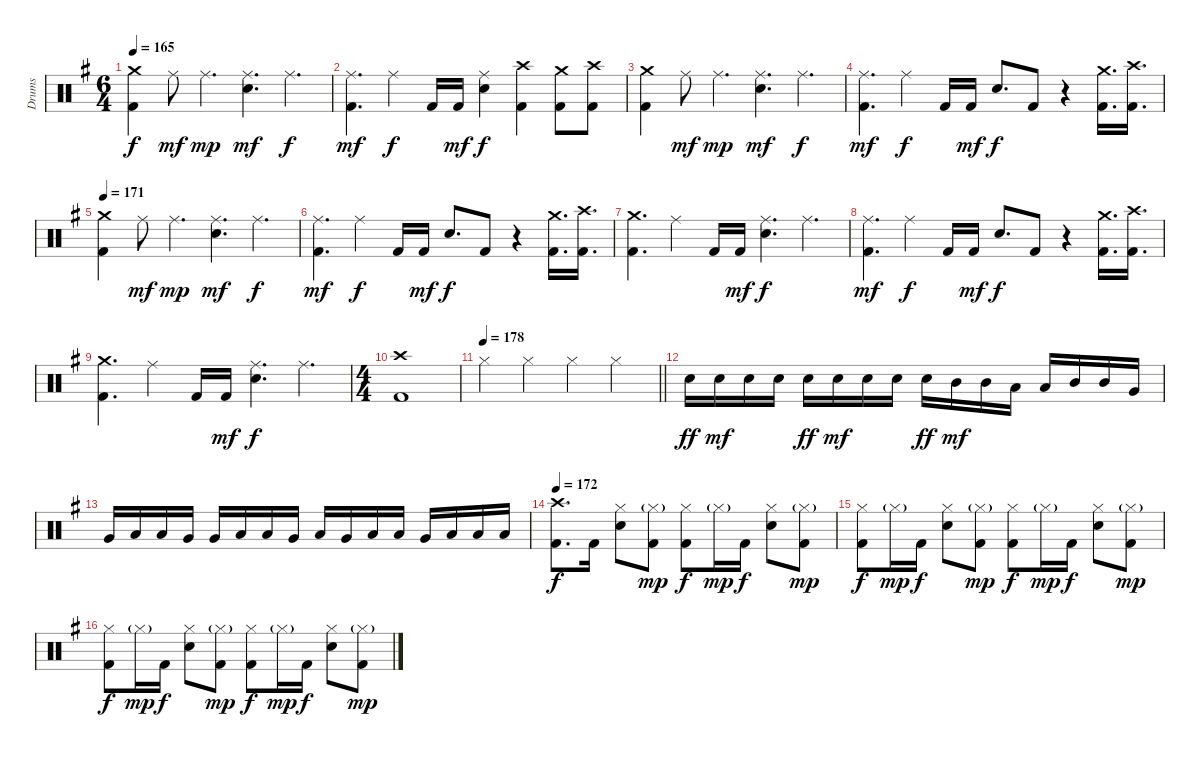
\track ("Drums" "Drums") {instrument percussion}
\staff {score}
\articulation defaults
\ts (6 4)
\tempo 165
\clef neutral
\ks g
("Crash medium (hit)" "Kick (hit) 2").4{dy f} "Ride (middle)".8{dy mf} "Ride (middle)".4{d dy mp} ("Ride (middle)" "Snare (hit) 2").4{d dy mf} "Ride (middle)".4{d dy f} |
("Ride (middle)" "Kick (hit) 2").4{d dy mf} "Ride (middle)".4{dy f} "Kick (hit) 2".16 "Kick (hit) 2".16{dy mf} ("Ride (middle)" "Snare (hit) 2").4{dy f} ("Crash high (hit)" "Kick (hit) 2").4 ("Crash medium (hit)" "Kick (hit) 2").8 ("Crash high (hit)" "Kick (hit) 2").8 |
("Crash medium (hit)" "Kick (hit) 2").4 "Ride (middle)".8{dy mf} "Ride (middle)".4{d dy mp} ("Ride (middle)" "Snare (hit) 2").4{d dy mf} "Ride (middle)".4{d dy f} |
("Ride (middle)" "Kick (hit) 2").4{d dy mf} "Ride (middle)".4{dy f} "Kick (hit) 2".16 "Kick (hit) 2".16{dy mf} "Snare (hit) 2".8{d dy f} "Kick (hit) 2".8 r.4 ("Crash medium (hit)" "Kick (hit) 2").16{d} ("Crash high (hit)" "Kick (hit) 2").16{d} |
\tempo 171
("Crash medium (hit)" "Kick (hit) 2").4 "Ride (middle)".8{dy mf} "Ride (middle)".4{d dy mp} ("Ride (middle)" "Snare (hit) 2").4{d dy mf} "Ride (middle)".4{d dy f} |
("Ride (middle)" "Kick (hit) 2").4{d dy mf} "Ride (middle)".4{dy f} "Kick (hit) 2".16 "Kick (hit) 2".16{dy mf} "Snare (hit) 2".8{d dy f} "Kick (hit) 2".8 r.4 ("Crash medium (hit)" "Kick (hit) 2").16{d} ("Crash high (hit)" "Kick (hit) 2").16{d} |
("Crash medium (hit)" "Kick (hit) 2").4{d} "Ride (middle)".4 "Kick (hit) 2".16 "Kick (hit) 2".16{dy mf} ("Ride (middle)" "Snare (hit) 2").4{d dy f} "Ride (middle)".4{d} |
("Ride (middle)" "Kick (hit) 2").4{d dy mf} "Ride (middle)".4{dy f} "Kick (hit) 2".16 "Kick (hit) 2".16{dy mf} "Snare (hit) 2".8{d dy f} "Kick (hit) 2".8 r.4 ("Crash medium (hit)" "Kick (hit) 2").16{d} ("Crash high (hit)" "Kick (hit) 2").16{d} |
("Crash medium (hit)" "Kick (hit) 2").4{d} "Ride (middle)".4 "Kick (hit) 2".16 "Kick (hit) 2".16{dy mf} ("Ride (middle)" "Snare (hit) 2").4{d dy f} "Ride (middle)".4{d} |
\ts (4 4)
("Crash high (hit)" "Kick (hit) 2").1 |
\tempo 178
\barLineRight lightlight "Hi-Hat (closed)".4 "Hi-Hat (closed)".4 "Hi-Hat (closed)".4 "Hi-Hat (closed)".4
|
"Snare (hit) 2".16{dy ff} "Snare (hit) 2".16{dy mf} "Snare (hit) 2".16 "Snare (hit) 2".16 "Snare (hit) 2".16{dy ff} "Snare (hit) 2".16{dy mf} "Snare (hit) 2".16 "Snare (hit) 2".16 "Snare (hit) 2".16{dy ff} "Mid Tom (hit)".16{dy mf} "Mid Tom (hit)".16 "Low Tom (hit)".16 "Low Tom (hit)".16 "Mid Tom (hit)".16 "Mid Tom (hit)".16 "Very Low Tom (hit)".16 |
"Very Low Tom (hit)".16 "Low Tom (hit)".16 "Low Tom (hit)".16 "Very Low Tom (hit)".16 "Very Low Tom (hit)".16 "Low Tom (hit)".16 "Low Tom (hit)".16 "Very Low Tom (hit)".16 "Low Floor Tom (hit)".16 "Very Low Tom (hit)".16 "Low Floor Tom (hit)".16 "Low Floor Tom (hit)".16 "Very Low Tom (hit)".16 "Low Floor Tom (hit)".16 "Low Floor Tom (hit)".16 "Low Floor Tom (hit)".16 |
\tempo 172
("Crash high (hit)" "Kick (hit) 2").8{d dy f} "Kick (hit) 2".16 ("Hi-Hat (closed)" "Snare (hit) 2").8 ("Hi-Hat (closed)"{g} "Kick (hit) 2").8{dy mp} ("Hi-Hat (closed)" "Kick (hit) 2").8{dy f} "Hi-Hat (closed)"{g}.16{dy mp} "Kick (hit) 2".16{dy f} ("Hi-Hat (closed)" "Snare (hit) 2").8 ("Hi-Hat (closed)"{g} "Kick (hit) 2").8{dy mp} |
("Hi-Hat (closed)" "Kick (hit) 2").8{dy f} "Hi-Hat (closed)"{g}.16{dy mp} "Kick (hit) 2".16{dy f} ("Hi-Hat (closed)" "Snare (hit) 2").8 ("Hi-Hat (closed)"{g} "Kick (hit) 2").8{dy mp} ("Hi-Hat (closed)" "Kick (hit) 2").8{dy f} "Hi-Hat (closed)"{g}.16{dy mp} "Kick (hit) 2".16{dy f} ("Hi-Hat (closed)" "Snare (hit) 2").8 ("Hi-Hat (closed)"{g} "Kick (hit) 2").8{dy mp} |
("Hi-Hat (closed)" "Kick (hit) 2").8{dy f} "Hi-Hat (closed)"{g}.16{dy mp} "Kick (hit) 2".16{dy f} ("Hi-Hat (closed)" "Snare (hit) 2").8 ("Hi-Hat (closed)"{g} "Kick (hit) 2").8{dy mp} ("Hi-Hat (closed)" "Kick (hit) 2").8{dy f} "Hi-Hat (closed)"{g}.16{dy mp} "Kick (hit) 2".16{dy f} ("Hi-Hat (closed)" "Snare (hit) 2").8 ("Hi-Hat (closed)"{g} "Kick (hit) 2").8{dy mp}
